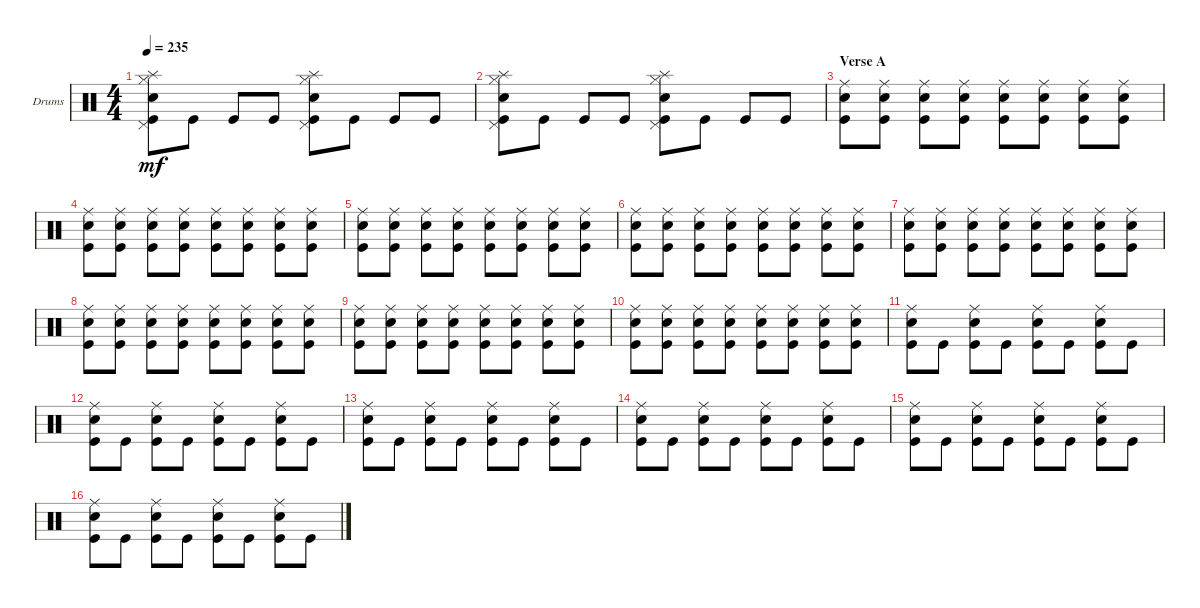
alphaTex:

\defaultSystemsLayout 4
\bracketExtendMode groupsimilarinstruments
\firstSystemTrackNameOrientation horizontal
\otherSystemsTrackNameOrientation horizontal
\track ("Drumkit" "Drums") {instrument percussion}
\staff {score}
\articulation defaults
\ts (4 4)
\tempo 235
\clef neutral
\scale
0.333333
\ks c
("Kick (hit)" "Snare (hit) 2" "Pedal Hi-Hat (hit)" "Hi-Hat (closed)" "Splash (hit)").8{dy mf} "Kick (hit)".8 "Kick (hit)".8 "Kick (hit)".8 ("Kick (hit)" "Pedal Hi-Hat (hit)" "Snare (hit) 2" "Hi-Hat (closed)" "Splash (hit)").8 "Kick (hit)".8 "Kick (hit)".8 "Kick (hit)".8 |
\scale
0.333333 ("Kick (hit)" "Snare (hit) 2" "Pedal Hi-Hat (hit)" "Hi-Hat (closed)" "Splash (hit)").8 "Kick (hit)".8 "Kick (hit)".8 "Kick (hit)".8 ("Kick (hit)" "Pedal Hi-Hat (hit)" "Snare (hit) 2" "Hi-Hat (closed)" "Splash (hit)").8 "Kick (hit)".8 "Kick (hit)".8 "Kick (hit)".8 |
\section ("" "Verse A")
\scale
0.333333 ("Snare (hit) 2" "Ride (middle)" "Kick (hit)").8 ("Snare (hit) 2" "Ride (middle)" "Kick (hit)").8 ("Snare (hit) 2" "Ride (middle)" "Kick (hit)").8 ("Snare (hit) 2" "Ride (middle)" "Kick (hit)").8 ("Snare (hit) 2" "Ride (middle)" "Kick (hit)").8 ("Snare (hit) 2" "Ride (middle)" "Kick (hit)").8 ("Snare (hit) 2" "Ride (middle)" "Kick (hit)").8 ("Snare (hit) 2" "Ride (middle)" "Kick (hit)").8 |
\scale
0.333333 ("Snare (hit) 2" "Ride (middle)" "Kick (hit)").8 ("Snare (hit) 2" "Ride (middle)" "Kick (hit)").8 ("Snare (hit) 2" "Ride (middle)" "Kick (hit)").8 ("Snare (hit) 2" "Ride (middle)" "Kick (hit)").8 ("Snare (hit) 2" "Ride (middle)" "Kick (hit)").8 ("Snare (hit) 2" "Ride (middle)" "Kick (hit)").8 ("Snare (hit) 2" "Ride (middle)" "Kick (hit)").8 ("Snare (hit) 2" "Ride (middle)" "Kick (hit)").8 |
\scale
0.333333 ("Snare (hit) 2" "Ride (middle)" "Kick (hit)").8 ("Snare (hit) 2" "Ride (middle)" "Kick (hit)").8 ("Snare (hit) 2" "Ride (middle)" "Kick (hit)").8 ("Snare (hit) 2" "Ride (middle)" "Kick (hit)").8 ("Snare (hit) 2" "Ride (middle)" "Kick (hit)").8 ("Snare (hit) 2" "Ride (middle)" "Kick (hit)").8 ("Snare (hit) 2" "Ride (middle)" "Kick (hit)").8 ("Snare (hit) 2" "Ride (middle)" "Kick (hit)").8 |
\scale
0.333333 ("Snare (hit) 2" "Ride (middle)" "Kick (hit)").8 ("Snare (hit) 2" "Ride (middle)" "Kick (hit)").8 ("Snare (hit) 2" "Ride (middle)" "Kick (hit)").8 ("Snare (hit) 2" "Ride (middle)" "Kick (hit)").8 ("Snare (hit) 2" "Ride (middle)" "Kick (hit)").8 ("Snare (hit) 2" "Ride (middle)" "Kick (hit)").8 ("Snare (hit) 2" "Ride (middle)" "Kick (hit)").8 ("Snare (hit) 2" "Ride (middle)" "Kick (hit)").8 |
\scale
0.333333 ("Snare (hit) 2" "Ride (middle)" "Kick (hit)").8 ("Snare (hit) 2" "Ride (middle)" "Kick (hit)").8 ("Snare (hit) 2" "Ride (middle)" "Kick (hit)").8 ("Snare (hit) 2" "Ride (middle)" "Kick (hit)").8 ("Snare (hit) 2" "Ride (middle)" "Kick (hit)").8 ("Snare (hit) 2" "Ride (middle)" "Kick (hit)").8 ("Snare (hit) 2" "Ride (middle)" "Kick (hit)").8 ("Snare (hit) 2" "Ride (middle)" "Kick (hit)").8 |
\scale
0.333333 ("Snare (hit) 2" "Ride (middle)" "Kick (hit)").8 ("Snare (hit) 2" "Ride (middle)" "Kick (hit)").8 ("Snare (hit) 2" "Ride (middle)" "Kick (hit)").8 ("Snare (hit) 2" "Ride (middle)" "Kick (hit)").8 ("Snare (hit) 2" "Ride (middle)" "Kick (hit)").8 ("Snare (hit) 2" "Ride (middle)" "Kick (hit)").8 ("Snare (hit) 2" "Ride (middle)" "Kick (hit)").8 ("Snare (hit) 2" "Ride (middle)" "Kick (hit)").8 |
\scale
0.333333 ("Snare (hit) 2" "Ride (middle)" "Kick (hit)").8 ("Snare (hit) 2" "Ride (middle)" "Kick (hit)").8 ("Snare (hit) 2" "Ride (middle)" "Kick (hit)").8 ("Snare (hit) 2" "Ride (middle)" "Kick (hit)").8 ("Snare (hit) 2" "Ride (middle)" "Kick (hit)").8 ("Snare (hit) 2" "Ride (middle)" "Kick (hit)").8 ("Snare (hit) 2" "Ride (middle)" "Kick (hit)").8 ("Snare (hit) 2" "Ride (middle)" "Kick (hit)").8 |
\scale
0.333333 ("Snare (hit) 2" "Ride (middle)" "Kick (hit)").8 ("Snare (hit) 2" "Ride (middle)" "Kick (hit)").8 ("Snare (hit) 2" "Ride (middle)" "Kick (hit)").8 ("Snare (hit) 2" "Ride (middle)" "Kick (hit)").8 ("Snare (hit) 2" "Ride (middle)" "Kick (hit)").8 ("Snare (hit) 2" "Ride (middle)" "Kick (hit)").8 ("Snare (hit) 2" "Ride (middle)" "Kick (hit)").8 ("Snare (hit) 2" "Ride (middle)" "Kick (hit)").8 |
\scale
0.333333 ("Snare (hit) 2" "Ride (middle)" "Kick (hit)").8 "Kick (hit)".8 ("Snare (hit) 2" "Ride (middle)" "Kick (hit)").8 "Kick (hit)".8 ("Snare (hit) 2" "Ride (middle)" "Kick (hit)").8 "Kick (hit)".8 ("Snare (hit) 2" "Ride (middle)" "Kick (hit)").8 "Kick (hit)".8 |
\scale
0.333333 ("Snare (hit) 2" "Ride (middle)" "Kick (hit)").8 "Kick (hit)".8 ("Snare (hit) 2" "Ride (middle)" "Kick (hit)").8 "Kick (hit)".8 ("Snare (hit) 2" "Ride (middle)" "Kick (hit)").8 "Kick (hit)".8 ("Snare (hit) 2" "Ride (middle)" "Kick (hit)").8 "Kick (hit)".8 |
\scale
0.333333 ("Snare (hit) 2" "Ride (middle)" "Kick (hit)").8 "Kick (hit)".8 ("Snare (hit) 2" "Ride (middle)" "Kick (hit)").8 "Kick (hit)".8 ("Snare (hit) 2" "Ride (middle)" "Kick (hit)").8 "Kick (hit)".8 ("Snare (hit) 2" "Ride (middle)" "Kick (hit)").8 "Kick (hit)".8 |
\scale
0.333333 ("Snare (hit) 2" "Ride (middle)" "Kick (hit)").8 "Kick (hit)".8 ("Snare (hit) 2" "Ride (middle)" "Kick (hit)").8 "Kick (hit)".8 ("Snare (hit) 2" "Ride (middle)" "Kick (hit)").8 "Kick (hit)".8 ("Snare (hit) 2" "Ride (middle)" "Kick (hit)").8 "Kick (hit)".8 |
\scale
0.333333 ("Snare (hit) 2" "Ride (middle)" "Kick (hit)").8 "Kick (hit)".8 ("Snare (hit) 2" "Ride (middle)" "Kick (hit)").8 "Kick (hit)".8 ("Snare (hit) 2" "Ride (middle)" "Kick (hit)").8 "Kick (hit)".8 ("Snare (hit) 2" "Ride (middle)" "Kick (hit)").8 "Kick (hit)".8 |
\scale
0.333333 ("Snare (hit) 2" "Ride (middle)" "Kick (hit)").8 "Kick (hit)".8 ("Snare (hit) 2" "Ride (middle)" "Kick (hit)").8 "Kick (hit)".8 ("Snare (hit) 2" "Ride (middle)" "Kick (hit)").8 "Kick (hit)".8 ("Snare (hit) 2" "Ride (middle)" "Kick (hit)").8 "Kick (hit)".8
